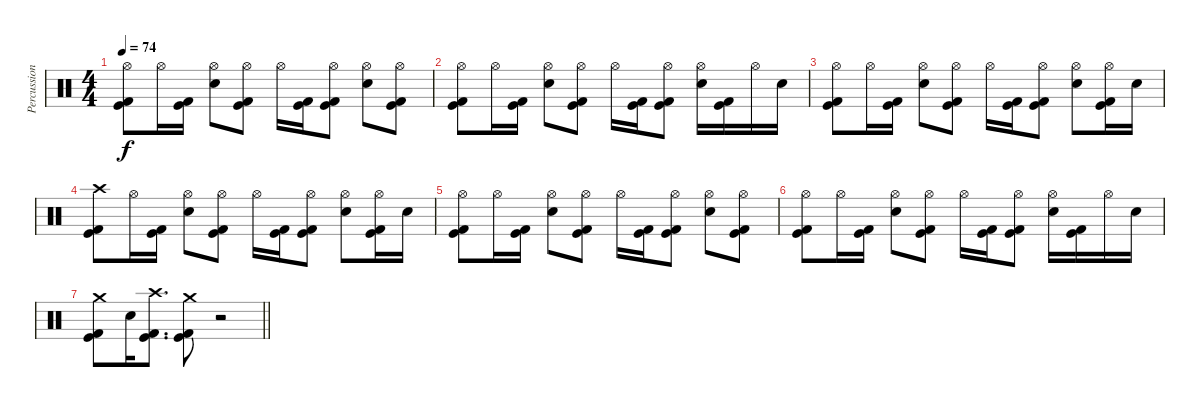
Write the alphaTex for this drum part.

\track ("Percussion" "Percussion") {instrument percussion}
\staff {score}
\articulation defaults
\ts (4 4)
\tempo 74
\clef neutral
\ks c
("Hi-Hat (open)" "Kick (hit)" "Kick (hit) 2").8{dy f} "Hi-Hat (open)".16 ("Kick (hit)" "Kick (hit) 2").16 ("Hi-Hat (open)" "Electric Snare (hit)").8 ("Hi-Hat (open)" "Kick (hit)" "Kick (hit) 2").8 "Hi-Hat (open)".16 ("Kick (hit)" "Kick (hit) 2").16 ("Hi-Hat (open)" "Kick (hit)" "Kick (hit) 2").8 ("Hi-Hat (open)" "Electric Snare (hit)").8 ("Hi-Hat (open)" "Kick (hit)" "Kick (hit) 2").8 |
("Hi-Hat (open)" "Kick (hit)" "Kick (hit) 2").8 "Hi-Hat (open)".16 ("Kick (hit)" "Kick (hit) 2").16 ("Hi-Hat (open)" "Electric Snare (hit)").8 ("Hi-Hat (open)" "Kick (hit)" "Kick (hit) 2").8 "Hi-Hat (open)".16 ("Kick (hit)" "Kick (hit) 2").16 ("Hi-Hat (open)" "Kick (hit)" "Kick (hit) 2").8 ("Hi-Hat (open)" "Electric Snare (hit)").16 ("Kick (hit)" "Kick (hit) 2").16 "Hi-Hat (open)".16 "Electric Snare (hit)".16 |
("Hi-Hat (open)" "Kick (hit)" "Kick (hit) 2").8 "Hi-Hat (open)".16 ("Kick (hit)" "Kick (hit) 2").16 ("Hi-Hat (open)" "Electric Snare (hit)").8 ("Hi-Hat (open)" "Kick (hit)" "Kick (hit) 2").8 "Hi-Hat (open)".16 ("Kick (hit)" "Kick (hit) 2").16 ("Hi-Hat (open)" "Kick (hit)" "Kick (hit) 2").8 ("Hi-Hat (open)" "Electric Snare (hit)").8 ("Hi-Hat (open)" "Kick (hit)" "Kick (hit) 2").16 "Electric Snare (hit)".16 |
("Crash high (hit)" "Kick (hit)" "Kick (hit) 2").8 "Hi-Hat (open)".16 ("Kick (hit)" "Kick (hit) 2").16 ("Hi-Hat (open)" "Electric Snare (hit)").8 ("Hi-Hat (open)" "Kick (hit)" "Kick (hit) 2").8 "Hi-Hat (open)".16 ("Kick (hit)" "Kick (hit) 2").16 ("Hi-Hat (open)" "Kick (hit)" "Kick (hit) 2").8 ("Hi-Hat (open)" "Electric Snare (hit)").8 ("Hi-Hat (open)" "Kick (hit)" "Kick (hit) 2").16 "Electric Snare (hit)".16 |
("Hi-Hat (open)" "Kick (hit)" "Kick (hit) 2").8 "Hi-Hat (open)".16 ("Kick (hit)" "Kick (hit) 2").16 ("Hi-Hat (open)" "Electric Snare (hit)").8 ("Hi-Hat (open)" "Kick (hit)" "Kick (hit) 2").8 "Hi-Hat (open)".16 ("Kick (hit)" "Kick (hit) 2").16 ("Hi-Hat (open)" "Kick (hit)" "Kick (hit) 2").8 ("Hi-Hat (open)" "Electric Snare (hit)").8 ("Hi-Hat (open)" "Kick (hit)" "Kick (hit) 2").8 |
("Hi-Hat (open)" "Kick (hit)" "Kick (hit) 2").8 "Hi-Hat (open)".16 ("Kick (hit)" "Kick (hit) 2").16 ("Hi-Hat (open)" "Electric Snare (hit)").8 ("Hi-Hat (open)" "Kick (hit)" "Kick (hit) 2").8 "Hi-Hat (open)".16 ("Kick (hit)" "Kick (hit) 2").16 ("Hi-Hat (open)" "Kick (hit)" "Kick (hit) 2").8 ("Hi-Hat (open)" "Electric Snare (hit)").16 ("Kick (hit)" "Kick (hit) 2").16 "Hi-Hat (open)".16 "Electric Snare (hit)".16 |
\barLineRight lightlight
("Crash medium (hit)" "Kick (hit)" "Kick (hit) 2").8 "Electric Snare (hit)".16 ("Crash high (hit)" "Kick (hit)" "Kick (hit) 2").8{d} ("Crash medium (hit)" "Kick (hit)" "Kick (hit) 2").8 r.2
